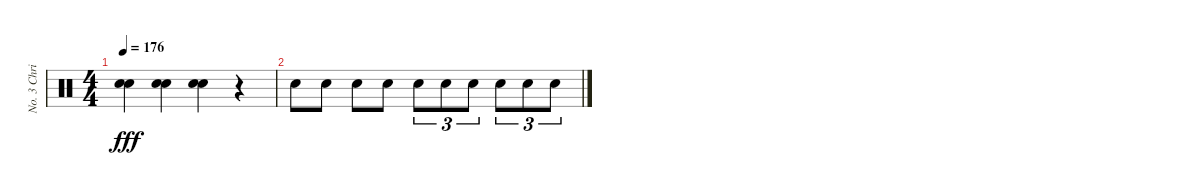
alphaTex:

\track ("No. 3 Chris" "No. 3 Chri") {instrument percussion}
\staff {score}
\articulation defaults
\ts (4 4)
\tempo 176
\clef neutral
\ks c
("Electric Snare (hit)" "Electric Snare (hit)").4{dy fff} ("Electric Snare (hit)" "Electric Snare (hit)").4 ("Electric Snare (hit)" "Electric Snare (hit)").4 r.4 |
"Electric Snare (hit)".8 "Electric Snare (hit)".8 "Electric Snare (hit)".8 "Electric Snare (hit)".8 "Electric Snare (hit)".8{tu (3 2)} "Electric Snare (hit)".8{tu (3 2)} "Electric Snare (hit)".8{tu (3 2)} "Electric Snare (hit)".8{tu (3 2)} "Electric Snare (hit)".8{tu (3 2)} "Electric Snare (hit)".8{tu (3 2)}
